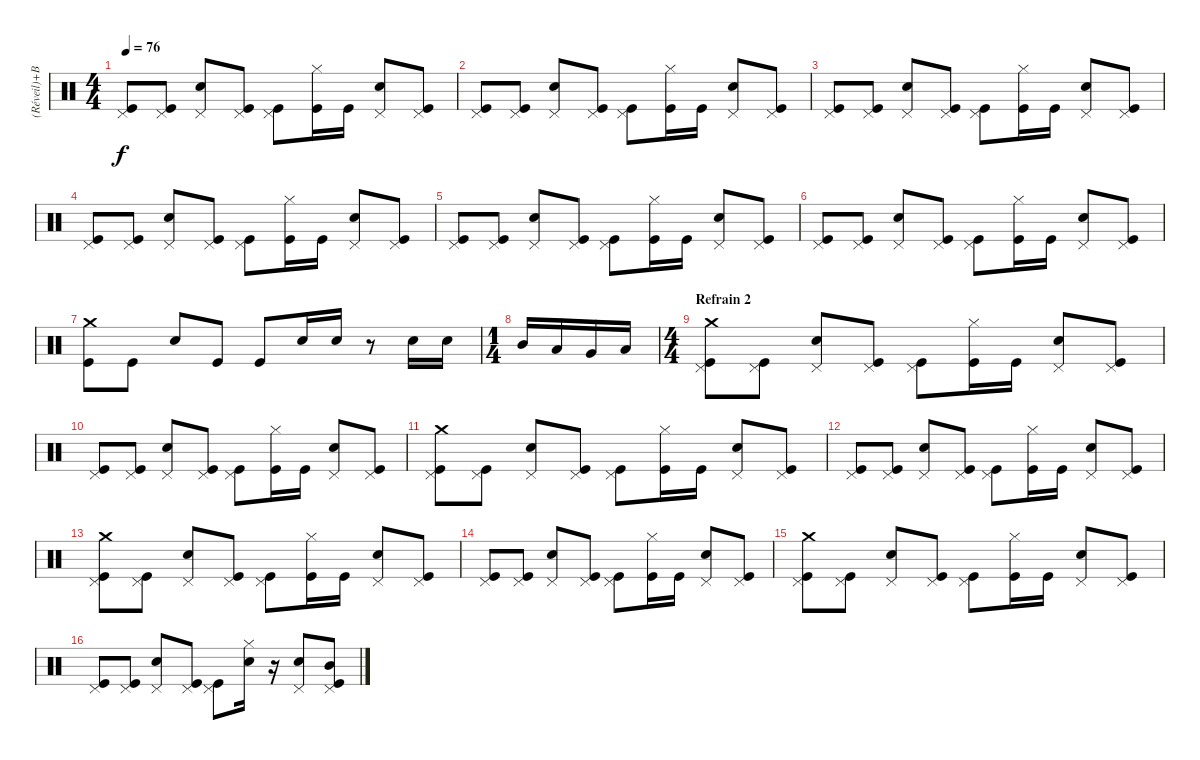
\track ("(Réveil)+Batterie" "(Réveil)+B") {instrument percussion}
\staff {score}
\articulation defaults
\ts (4 4)
\tempo 76
\clef neutral
\ks c
("Pedal Hi-Hat (hit)" "Kick (hit)").8{dy f} ("Pedal Hi-Hat (hit)" "Kick (hit)").8 ("Pedal Hi-Hat (hit)" "Electric Snare (hit)").8 ("Pedal Hi-Hat (hit)" "Kick (hit)").8 ("Pedal Hi-Hat (hit)" "Kick (hit)").8 ("Hi-Hat (closed)" "Kick (hit)").16 "Kick (hit)".16 ("Pedal Hi-Hat (hit)" "Electric Snare (hit)").8 ("Pedal Hi-Hat (hit)" "Kick (hit)").8 |
("Pedal Hi-Hat (hit)" "Kick (hit)").8 ("Pedal Hi-Hat (hit)" "Kick (hit)").8 ("Pedal Hi-Hat (hit)" "Electric Snare (hit)").8 ("Pedal Hi-Hat (hit)" "Kick (hit)").8 ("Pedal Hi-Hat (hit)" "Kick (hit)").8 ("Hi-Hat (closed)" "Kick (hit)").16 "Kick (hit)".16 ("Pedal Hi-Hat (hit)" "Electric Snare (hit)").8 ("Pedal Hi-Hat (hit)" "Kick (hit)").8 |
("Pedal Hi-Hat (hit)" "Kick (hit)").8 ("Pedal Hi-Hat (hit)" "Kick (hit)").8 ("Pedal Hi-Hat (hit)" "Electric Snare (hit)").8 ("Pedal Hi-Hat (hit)" "Kick (hit)").8 ("Pedal Hi-Hat (hit)" "Kick (hit)").8 ("Hi-Hat (closed)" "Kick (hit)").16 "Kick (hit)".16 ("Pedal Hi-Hat (hit)" "Electric Snare (hit)").8 ("Pedal Hi-Hat (hit)" "Kick (hit)").8 |
("Pedal Hi-Hat (hit)" "Kick (hit)").8 ("Pedal Hi-Hat (hit)" "Kick (hit)").8 ("Pedal Hi-Hat (hit)" "Electric Snare (hit)").8 ("Pedal Hi-Hat (hit)" "Kick (hit)").8 ("Pedal Hi-Hat (hit)" "Kick (hit)").8 ("Hi-Hat (closed)" "Kick (hit)").16 "Kick (hit)".16 ("Pedal Hi-Hat (hit)" "Electric Snare (hit)").8 ("Pedal Hi-Hat (hit)" "Kick (hit)").8 |
("Pedal Hi-Hat (hit)" "Kick (hit)").8 ("Pedal Hi-Hat (hit)" "Kick (hit)").8 ("Pedal Hi-Hat (hit)" "Electric Snare (hit)").8 ("Pedal Hi-Hat (hit)" "Kick (hit)").8 ("Pedal Hi-Hat (hit)" "Kick (hit)").8 ("Hi-Hat (closed)" "Kick (hit)").16 "Kick (hit)".16 ("Pedal Hi-Hat (hit)" "Electric Snare (hit)").8 ("Pedal Hi-Hat (hit)" "Kick (hit)").8 |
("Pedal Hi-Hat (hit)" "Kick (hit)").8 ("Pedal Hi-Hat (hit)" "Kick (hit)").8 ("Pedal Hi-Hat (hit)" "Electric Snare (hit)").8 ("Pedal Hi-Hat (hit)" "Kick (hit)").8 ("Pedal Hi-Hat (hit)" "Kick (hit)").8 ("Hi-Hat (closed)" "Kick (hit)").16 "Kick (hit)".16 ("Pedal Hi-Hat (hit)" "Electric Snare (hit)").8 ("Pedal Hi-Hat (hit)" "Kick (hit)").8 |
("Crash medium (hit)" "Kick (hit)").8 "Kick (hit)".8 "Electric Snare (hit)".8 "Kick (hit)".8 "Kick (hit)".8 "Electric Snare (hit)".16 "Electric Snare (hit)".16 r.8 "Electric Snare (hit)".16 "Electric Snare (hit)".16 |
\ts (1 4)
"Mid Tom (hit)".16 "Low Tom (hit)".16 "Very Low Tom (hit)".16 "Low Floor Tom (hit)".16 |
\ts (4 4)
\section ("" "Refrain 2")
("Pedal Hi-Hat (hit)" "Crash medium (hit)" "Kick (hit)").8{volume 16} ("Pedal Hi-Hat (hit)" "Kick (hit)").8 ("Pedal Hi-Hat (hit)" "Electric Snare (hit)").8 ("Pedal Hi-Hat (hit)" "Kick (hit)").8 ("Pedal Hi-Hat (hit)" "Kick (hit)").8 ("Hi-Hat (closed)" "Kick (hit)").16 "Kick (hit)".16 ("Pedal Hi-Hat (hit)" "Electric Snare (hit)").8 ("Pedal Hi-Hat (hit)" "Kick (hit)").8 |
("Pedal Hi-Hat (hit)" "Kick (hit)").8 ("Pedal Hi-Hat (hit)" "Kick (hit)").8 ("Pedal Hi-Hat (hit)" "Electric Snare (hit)").8 ("Pedal Hi-Hat (hit)" "Kick (hit)").8 ("Pedal Hi-Hat (hit)" "Kick (hit)").8 ("Hi-Hat (closed)" "Kick (hit)").16 "Kick (hit)".16 ("Pedal Hi-Hat (hit)" "Electric Snare (hit)").8 ("Pedal Hi-Hat (hit)" "Kick (hit)").8 |
("Pedal Hi-Hat (hit)" "Crash medium (hit)" "Kick (hit)").8 ("Pedal Hi-Hat (hit)" "Kick (hit)").8 ("Pedal Hi-Hat (hit)" "Electric Snare (hit)").8 ("Pedal Hi-Hat (hit)" "Kick (hit)").8 ("Pedal Hi-Hat (hit)" "Kick (hit)").8 ("Hi-Hat (closed)" "Kick (hit)").16 "Kick (hit)".16 ("Pedal Hi-Hat (hit)" "Electric Snare (hit)").8 ("Pedal Hi-Hat (hit)" "Kick (hit)").8 |
("Pedal Hi-Hat (hit)" "Kick (hit)").8 ("Pedal Hi-Hat (hit)" "Kick (hit)").8 ("Pedal Hi-Hat (hit)" "Electric Snare (hit)").8 ("Pedal Hi-Hat (hit)" "Kick (hit)").8 ("Pedal Hi-Hat (hit)" "Kick (hit)").8 ("Hi-Hat (closed)" "Kick (hit)").16 "Kick (hit)".16 ("Pedal Hi-Hat (hit)" "Electric Snare (hit)").8 ("Pedal Hi-Hat (hit)" "Kick (hit)").8 |
("Pedal Hi-Hat (hit)" "Crash medium (hit)" "Kick (hit)").8{volume 16} ("Pedal Hi-Hat (hit)" "Kick (hit)").8 ("Pedal Hi-Hat (hit)" "Electric Snare (hit)").8 ("Pedal Hi-Hat (hit)" "Kick (hit)").8 ("Pedal Hi-Hat (hit)" "Kick (hit)").8 ("Hi-Hat (closed)" "Kick (hit)").16 "Kick (hit)".16 ("Pedal Hi-Hat (hit)" "Electric Snare (hit)").8 ("Pedal Hi-Hat (hit)" "Kick (hit)").8 |
("Pedal Hi-Hat (hit)" "Kick (hit)").8 ("Pedal Hi-Hat (hit)" "Kick (hit)").8 ("Pedal Hi-Hat (hit)" "Electric Snare (hit)").8 ("Pedal Hi-Hat (hit)" "Kick (hit)").8 ("Pedal Hi-Hat (hit)" "Kick (hit)").8 ("Hi-Hat (closed)" "Kick (hit)").16 "Kick (hit)".16 ("Pedal Hi-Hat (hit)" "Electric Snare (hit)").8 ("Pedal Hi-Hat (hit)" "Kick (hit)").8 |
("Pedal Hi-Hat (hit)" "Crash medium (hit)" "Kick (hit)").8 ("Pedal Hi-Hat (hit)" "Kick (hit)").8 ("Pedal Hi-Hat (hit)" "Electric Snare (hit)").8 ("Pedal Hi-Hat (hit)" "Kick (hit)").8 ("Pedal Hi-Hat (hit)" "Kick (hit)").8 ("Hi-Hat (closed)" "Kick (hit)").16 "Kick (hit)".16 ("Pedal Hi-Hat (hit)" "Electric Snare (hit)").8 ("Pedal Hi-Hat (hit)" "Kick (hit)").8 |
("Pedal Hi-Hat (hit)" "Kick (hit)").8 ("Pedal Hi-Hat (hit)" "Kick (hit)").8 ("Pedal Hi-Hat (hit)" "Electric Snare (hit)").8 ("Pedal Hi-Hat (hit)" "Kick (hit)").8 ("Pedal Hi-Hat (hit)" "Kick (hit)").8 ("Hi-Hat (closed)" "Electric Snare (hit)").16 r.16 ("Pedal Hi-Hat (hit)" "Electric Snare (hit)").8 ("Pedal Hi-Hat (hit)" "Mid Tom (hit)" "Kick (hit)").8
